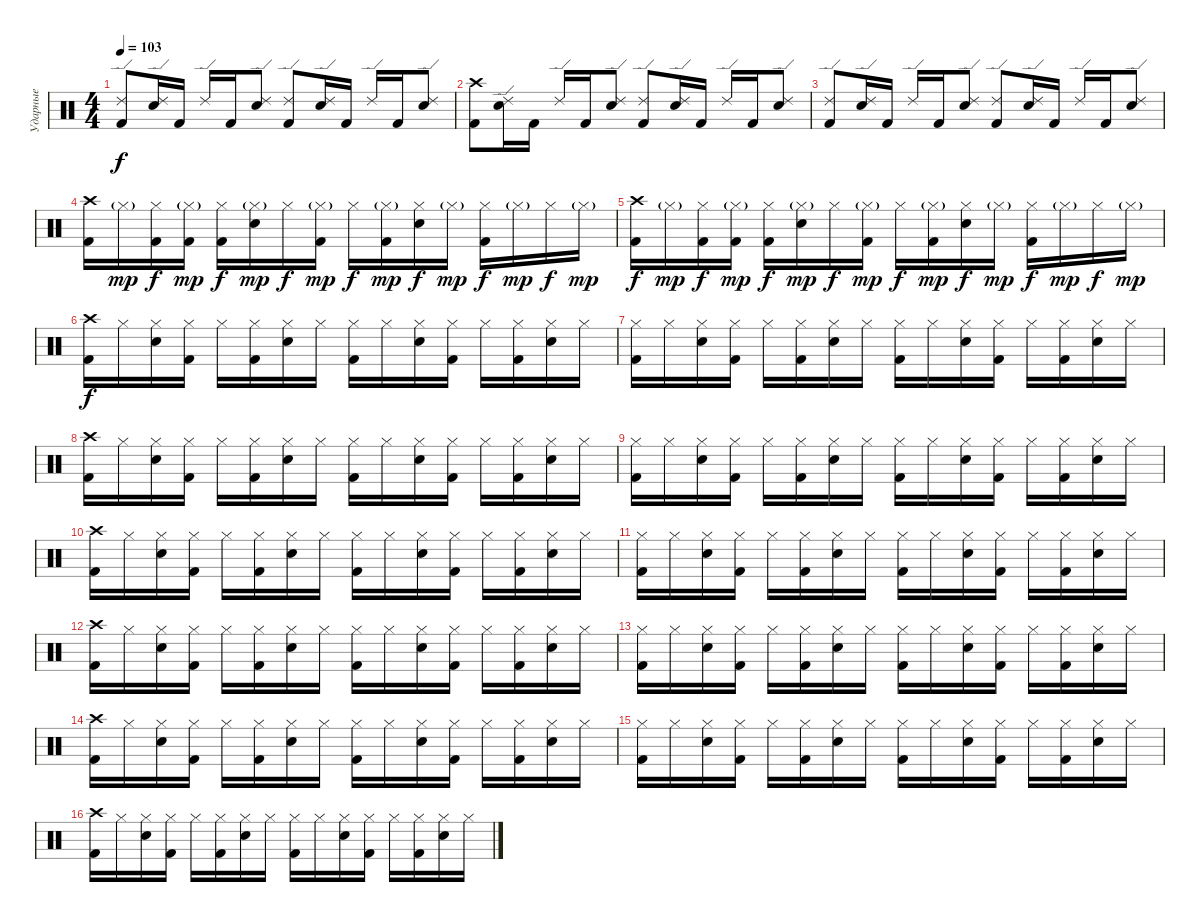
\track ("Ударные" "Ударные") {instrument percussion}
\staff {score}
\articulation defaults
\ts (4 4)
\tempo 103
\clef neutral
\ks c
("Kick (hit) 2" "Ride (edge) 2").8{dy f} ("Electric Snare (hit)" "Ride (edge) 2").16 "Kick (hit) 2".16 "Ride (edge) 2".16 "Kick (hit) 2".16 ("Electric Snare (hit)" "Ride (edge) 2").8 ("Kick (hit) 2" "Ride (edge) 2").8 ("Electric Snare (hit)" "Ride (edge) 2").16 "Kick (hit) 2".16 "Ride (edge) 2".16 "Kick (hit) 2".16 ("Electric Snare (hit)" "Ride (edge) 2").8 |
("Kick (hit) 2" "Crash high (hit)").8 ("Electric Snare (hit)" "Ride (edge) 2").16 "Kick (hit) 2".16 "Ride (edge) 2".16 "Kick (hit) 2".16 ("Electric Snare (hit)" "Ride (edge) 2").8 ("Kick (hit) 2" "Ride (edge) 2").8 ("Electric Snare (hit)" "Ride (edge) 2").16 "Kick (hit) 2".16 "Ride (edge) 2".16 "Kick (hit) 2".16 ("Electric Snare (hit)" "Ride (edge) 2").8 |
("Kick (hit) 2" "Ride (edge) 2").8 ("Electric Snare (hit)" "Ride (edge) 2").16 "Kick (hit) 2".16 "Ride (edge) 2".16 "Kick (hit) 2".16 ("Electric Snare (hit)" "Ride (edge) 2").8 ("Kick (hit) 2" "Ride (edge) 2").8 ("Electric Snare (hit)" "Ride (edge) 2").16 "Kick (hit) 2".16 "Ride (edge) 2".16 "Kick (hit) 2".16 ("Electric Snare (hit)" "Ride (edge) 2").8 |
("Kick (hit) 2" "Crash high (hit)").16 "Hi-Hat (closed)"{g}.16{dy mp} ("Kick (hit) 2" "Hi-Hat (closed)").16{dy f} ("Kick (hit) 2" "Hi-Hat (closed)"{g}).16{dy mp} ("Kick (hit) 2" "Hi-Hat (closed)").16{dy f} ("Electric Snare (hit)" "Hi-Hat (closed)"{g}).16{dy mp} "Hi-Hat (closed)".16{dy f} ("Kick (hit) 2" "Hi-Hat (closed)"{g}).16{dy mp} "Hi-Hat (closed)".16{dy f} ("Kick (hit) 2" "Hi-Hat (closed)"{g}).16{dy mp} ("Electric Snare (hit)" "Hi-Hat (closed)").16{dy f} "Hi-Hat (closed)"{g}.16{dy mp} ("Kick (hit) 2" "Hi-Hat (closed)").16{dy f} "Hi-Hat (closed)"{g}.16{dy mp} "Hi-Hat (closed)".16{dy f} "Hi-Hat (closed)"{g}.16{dy mp} |
("Kick (hit) 2" "Crash high (hit)").16{dy f} "Hi-Hat (closed)"{g}.16{dy mp} ("Kick (hit) 2" "Hi-Hat (closed)").16{dy f} ("Kick (hit) 2" "Hi-Hat (closed)"{g}).16{dy mp} ("Kick (hit) 2" "Hi-Hat (closed)").16{dy f} ("Electric Snare (hit)" "Hi-Hat (closed)"{g}).16{dy mp} "Hi-Hat (closed)".16{dy f} ("Kick (hit) 2" "Hi-Hat (closed)"{g}).16{dy mp} "Hi-Hat (closed)".16{dy f} ("Kick (hit) 2" "Hi-Hat (closed)"{g}).16{dy mp} ("Electric Snare (hit)" "Hi-Hat (closed)").16{dy f} "Hi-Hat (closed)"{g}.16{dy mp} ("Kick (hit) 2" "Hi-Hat (closed)").16{dy f} "Hi-Hat (closed)"{g}.16{dy mp} "Hi-Hat (closed)".16{dy f} "Hi-Hat (closed)"{g}.16{dy mp} |
("Kick (hit) 2" "Crash high (hit)").16{dy f} "Hi-Hat (closed)".16 ("Electric Snare (hit)" "Hi-Hat (closed)").16 ("Kick (hit) 2" "Hi-Hat (closed)").16 "Hi-Hat (closed)".16 ("Kick (hit) 2" "Hi-Hat (closed)").16 ("Electric Snare (hit)" "Hi-Hat (closed)").16 "Hi-Hat (closed)".16 ("Kick (hit) 2" "Hi-Hat (closed)").16 "Hi-Hat (closed)".16 ("Electric Snare (hit)" "Hi-Hat (closed)").16 ("Kick (hit) 2" "Hi-Hat (closed)").16 "Hi-Hat (closed)".16 ("Kick (hit) 2" "Hi-Hat (closed)").16 ("Electric Snare (hit)" "Hi-Hat (closed)").16 "Hi-Hat (closed)".16 |
("Kick (hit) 2" "Hi-Hat (closed)").16 "Hi-Hat (closed)".16 ("Electric Snare (hit)" "Hi-Hat (closed)").16 ("Kick (hit) 2" "Hi-Hat (closed)").16 "Hi-Hat (closed)".16 ("Kick (hit) 2" "Hi-Hat (closed)").16 ("Electric Snare (hit)" "Hi-Hat (closed)").16 "Hi-Hat (closed)".16 ("Kick (hit) 2" "Hi-Hat (closed)").16 "Hi-Hat (closed)".16 ("Electric Snare (hit)" "Hi-Hat (closed)").16 ("Kick (hit) 2" "Hi-Hat (closed)").16 "Hi-Hat (closed)".16 ("Kick (hit) 2" "Hi-Hat (closed)").16 ("Electric Snare (hit)" "Hi-Hat (closed)").16 "Hi-Hat (closed)".16 |
("Kick (hit) 2" "Crash high (hit)").16 "Hi-Hat (closed)".16 ("Electric Snare (hit)" "Hi-Hat (closed)").16 ("Kick (hit) 2" "Hi-Hat (closed)").16 "Hi-Hat (closed)".16 ("Kick (hit) 2" "Hi-Hat (closed)").16 ("Electric Snare (hit)" "Hi-Hat (closed)").16 "Hi-Hat (closed)".16 ("Kick (hit) 2" "Hi-Hat (closed)").16 "Hi-Hat (closed)".16 ("Electric Snare (hit)" "Hi-Hat (closed)").16 ("Kick (hit) 2" "Hi-Hat (closed)").16 "Hi-Hat (closed)".16 ("Kick (hit) 2" "Hi-Hat (closed)").16 ("Electric Snare (hit)" "Hi-Hat (closed)").16 "Hi-Hat (closed)".16 |
("Kick (hit) 2" "Hi-Hat (closed)").16 "Hi-Hat (closed)".16 ("Electric Snare (hit)" "Hi-Hat (closed)").16 ("Kick (hit) 2" "Hi-Hat (closed)").16 "Hi-Hat (closed)".16 ("Kick (hit) 2" "Hi-Hat (closed)").16 ("Electric Snare (hit)" "Hi-Hat (closed)").16 "Hi-Hat (closed)".16 ("Kick (hit) 2" "Hi-Hat (closed)").16 "Hi-Hat (closed)".16 ("Electric Snare (hit)" "Hi-Hat (closed)").16 ("Kick (hit) 2" "Hi-Hat (closed)").16 "Hi-Hat (closed)".16 ("Kick (hit) 2" "Hi-Hat (closed)").16 ("Electric Snare (hit)" "Hi-Hat (closed)").16 "Hi-Hat (closed)".16 |
("Kick (hit) 2" "Crash high (hit)").16 "Hi-Hat (closed)".16 ("Electric Snare (hit)" "Hi-Hat (closed)").16 ("Kick (hit) 2" "Hi-Hat (closed)").16 "Hi-Hat (closed)".16 ("Kick (hit) 2" "Hi-Hat (closed)").16 ("Electric Snare (hit)" "Hi-Hat (closed)").16 "Hi-Hat (closed)".16 ("Kick (hit) 2" "Hi-Hat (closed)").16 "Hi-Hat (closed)".16 ("Electric Snare (hit)" "Hi-Hat (closed)").16 ("Kick (hit) 2" "Hi-Hat (closed)").16 "Hi-Hat (closed)".16 ("Kick (hit) 2" "Hi-Hat (closed)").16 ("Electric Snare (hit)" "Hi-Hat (closed)").16 "Hi-Hat (closed)".16 |
("Kick (hit) 2" "Hi-Hat (closed)").16 "Hi-Hat (closed)".16 ("Electric Snare (hit)" "Hi-Hat (closed)").16 ("Kick (hit) 2" "Hi-Hat (closed)").16 "Hi-Hat (closed)".16 ("Kick (hit) 2" "Hi-Hat (closed)").16 ("Electric Snare (hit)" "Hi-Hat (closed)").16 "Hi-Hat (closed)".16 ("Kick (hit) 2" "Hi-Hat (closed)").16 "Hi-Hat (closed)".16 ("Electric Snare (hit)" "Hi-Hat (closed)").16 ("Kick (hit) 2" "Hi-Hat (closed)").16 "Hi-Hat (closed)".16 ("Kick (hit) 2" "Hi-Hat (closed)").16 ("Electric Snare (hit)" "Hi-Hat (closed)").16 "Hi-Hat (closed)".16 |
("Kick (hit) 2" "Crash high (hit)").16 "Hi-Hat (closed)".16 ("Electric Snare (hit)" "Hi-Hat (closed)").16 ("Kick (hit) 2" "Hi-Hat (closed)").16 "Hi-Hat (closed)".16 ("Kick (hit) 2" "Hi-Hat (closed)").16 ("Electric Snare (hit)" "Hi-Hat (closed)").16 "Hi-Hat (closed)".16 ("Kick (hit) 2" "Hi-Hat (closed)").16 "Hi-Hat (closed)".16 ("Electric Snare (hit)" "Hi-Hat (closed)").16 ("Kick (hit) 2" "Hi-Hat (closed)").16 "Hi-Hat (closed)".16 ("Kick (hit) 2" "Hi-Hat (closed)").16 ("Electric Snare (hit)" "Hi-Hat (closed)").16 "Hi-Hat (closed)".16 |
("Kick (hit) 2" "Hi-Hat (closed)").16 "Hi-Hat (closed)".16 ("Electric Snare (hit)" "Hi-Hat (closed)").16 ("Kick (hit) 2" "Hi-Hat (closed)").16 "Hi-Hat (closed)".16 ("Kick (hit) 2" "Hi-Hat (closed)").16 ("Electric Snare (hit)" "Hi-Hat (closed)").16 "Hi-Hat (closed)".16 ("Kick (hit) 2" "Hi-Hat (closed)").16 "Hi-Hat (closed)".16 ("Electric Snare (hit)" "Hi-Hat (closed)").16 ("Kick (hit) 2" "Hi-Hat (closed)").16 "Hi-Hat (closed)".16 ("Kick (hit) 2" "Hi-Hat (closed)").16 ("Electric Snare (hit)" "Hi-Hat (closed)").16 "Hi-Hat (closed)".16 |
("Kick (hit) 2" "Crash high (hit)").16 "Hi-Hat (closed)".16 ("Electric Snare (hit)" "Hi-Hat (closed)").16 ("Kick (hit) 2" "Hi-Hat (closed)").16 "Hi-Hat (closed)".16 ("Kick (hit) 2" "Hi-Hat (closed)").16 ("Electric Snare (hit)" "Hi-Hat (closed)").16 "Hi-Hat (closed)".16 ("Kick (hit) 2" "Hi-Hat (closed)").16 "Hi-Hat (closed)".16 ("Electric Snare (hit)" "Hi-Hat (closed)").16 ("Kick (hit) 2" "Hi-Hat (closed)").16 "Hi-Hat (closed)".16 ("Kick (hit) 2" "Hi-Hat (closed)").16 ("Electric Snare (hit)" "Hi-Hat (closed)").16 "Hi-Hat (closed)".16 |
("Kick (hit) 2" "Hi-Hat (closed)").16 "Hi-Hat (closed)".16 ("Electric Snare (hit)" "Hi-Hat (closed)").16 ("Kick (hit) 2" "Hi-Hat (closed)").16 "Hi-Hat (closed)".16 ("Kick (hit) 2" "Hi-Hat (closed)").16 ("Electric Snare (hit)" "Hi-Hat (closed)").16 "Hi-Hat (closed)".16 ("Kick (hit) 2" "Hi-Hat (closed)").16 "Hi-Hat (closed)".16 ("Electric Snare (hit)" "Hi-Hat (closed)").16 ("Kick (hit) 2" "Hi-Hat (closed)").16 "Hi-Hat (closed)".16 ("Kick (hit) 2" "Hi-Hat (closed)").16 ("Electric Snare (hit)" "Hi-Hat (closed)").16 "Hi-Hat (closed)".16 |
("Kick (hit) 2" "Crash high (hit)").16 "Hi-Hat (closed)".16 ("Electric Snare (hit)" "Hi-Hat (closed)").16 ("Kick (hit) 2" "Hi-Hat (closed)").16 "Hi-Hat (closed)".16 ("Kick (hit) 2" "Hi-Hat (closed)").16 ("Electric Snare (hit)" "Hi-Hat (closed)").16 "Hi-Hat (closed)".16 ("Kick (hit) 2" "Hi-Hat (closed)").16 "Hi-Hat (closed)".16 ("Electric Snare (hit)" "Hi-Hat (closed)").16 ("Kick (hit) 2" "Hi-Hat (closed)").16 "Hi-Hat (closed)".16 ("Kick (hit) 2" "Hi-Hat (closed)").16 ("Electric Snare (hit)" "Hi-Hat (closed)").16 "Hi-Hat (closed)".16
